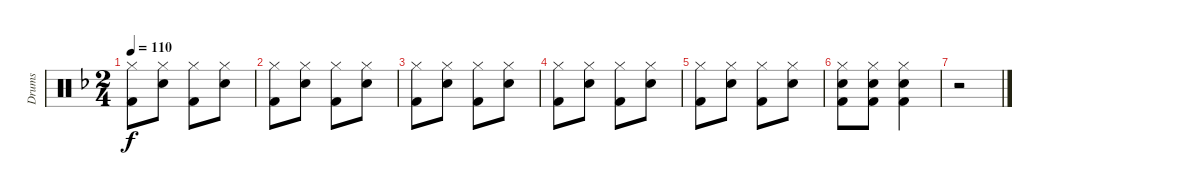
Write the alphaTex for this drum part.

\track ("Drums" "Drums") {instrument percussion}
\staff {score}
\articulation defaults
\ts (2 4)
\tempo 110
\clef neutral
\ks dminor
("Hi-Hat (closed)" "Kick (hit) 2").8{dy f} ("Hi-Hat (closed)" "Electric Snare (hit)").8 ("Hi-Hat (closed)" "Kick (hit) 2").8 ("Hi-Hat (closed)" "Electric Snare (hit)").8 |
("Hi-Hat (closed)" "Kick (hit) 2").8 ("Hi-Hat (closed)" "Electric Snare (hit)").8 ("Hi-Hat (closed)" "Kick (hit) 2").8 ("Hi-Hat (closed)" "Electric Snare (hit)").8 |
("Hi-Hat (closed)" "Kick (hit) 2").8 ("Hi-Hat (closed)" "Electric Snare (hit)").8 ("Hi-Hat (closed)" "Kick (hit) 2").8 ("Hi-Hat (closed)" "Electric Snare (hit)").8 |
("Hi-Hat (closed)" "Kick (hit) 2").8 ("Hi-Hat (closed)" "Electric Snare (hit)").8 ("Hi-Hat (closed)" "Kick (hit) 2").8 ("Hi-Hat (closed)" "Electric Snare (hit)").8 |
("Hi-Hat (closed)" "Kick (hit) 2").8 ("Hi-Hat (closed)" "Electric Snare (hit)").8 ("Hi-Hat (closed)" "Kick (hit) 2").8 ("Hi-Hat (closed)" "Electric Snare (hit)").8 |
("Hi-Hat (closed)" "Electric Snare (hit)" "Kick (hit) 2").8 ("Hi-Hat (closed)" "Electric Snare (hit)" "Kick (hit) 2").8 ("Hi-Hat (closed)" "Electric Snare (hit)" "Kick (hit) 2").4 |
r.2
